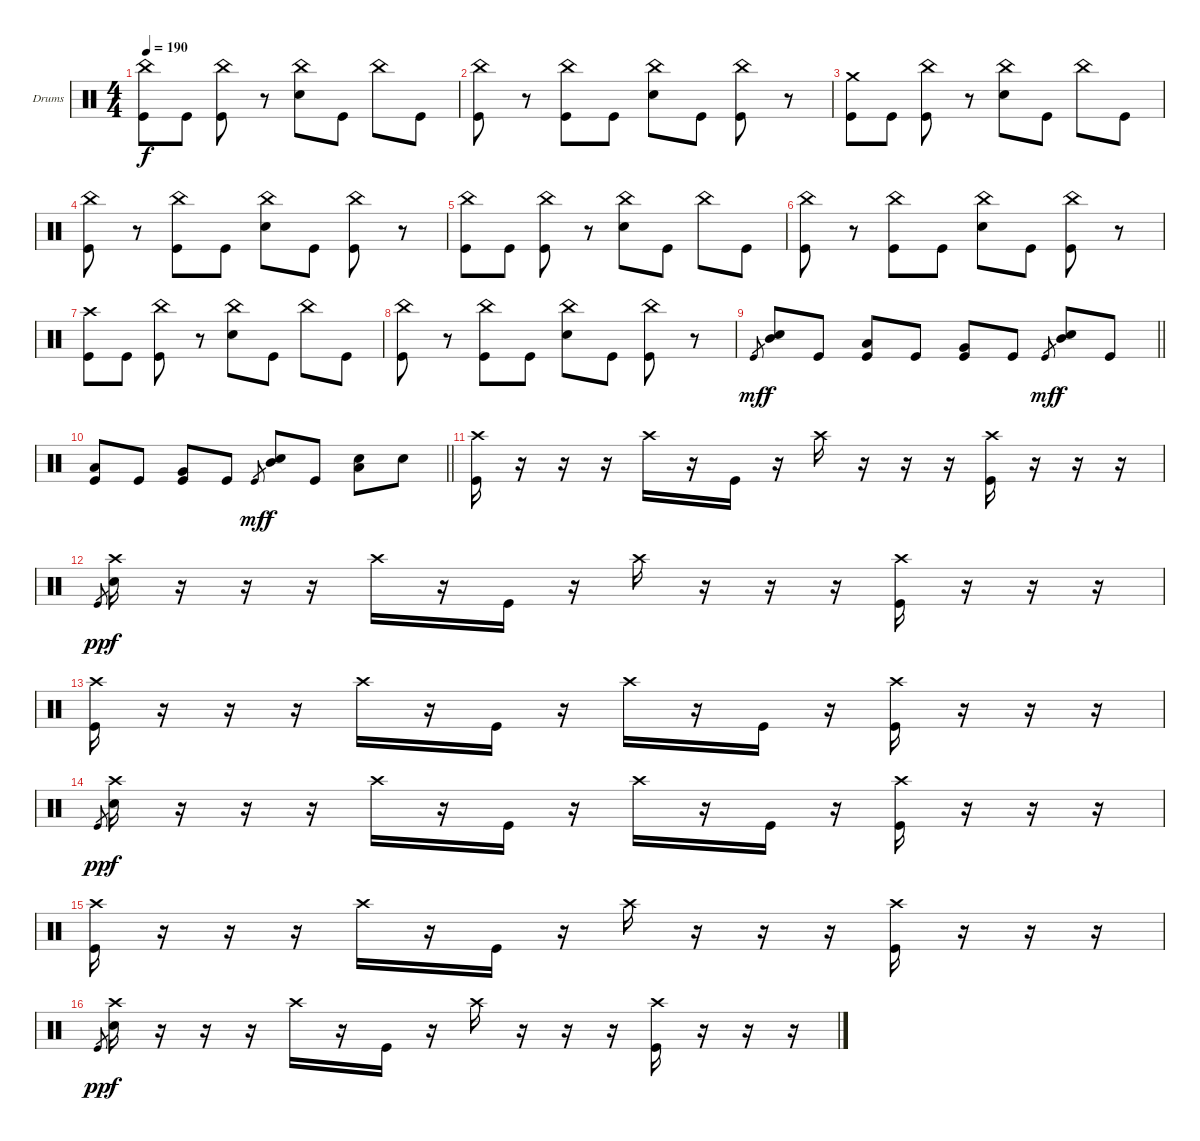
\bracketExtendMode groupsimilarinstruments
\firstSystemTrackNameOrientation horizontal
\otherSystemsTrackNameOrientation horizontal
\track ("Drumkit" "Drums") {instrument percussion}
\staff {score}
\articulation defaults
\ts (4 4)
\tempo 190
\clef neutral
\ks c
("China (hit)" "Kick (hit)").8{dy f} "Kick (hit)".8 ("China (hit)" "Kick (hit)").8 r.8 ("China (hit)" "Snare (hit) 2").8 "Kick (hit)".8 "China (hit)".8 "Kick (hit)".8 |
("China (hit)" "Kick (hit)").8 r.8 ("China (hit)" "Kick (hit)").8 "Kick (hit)".8 ("China (hit)" "Snare (hit) 2").8 "Kick (hit)".8 ("China (hit)" "Kick (hit)").8 r.8 |
("Crash medium (hit)" "Kick (hit)").8 "Kick (hit)".8 ("China (hit)" "Kick (hit)").8 r.8 ("China (hit)" "Snare (hit) 2").8 "Kick (hit)".8 "China (hit)".8 "Kick (hit)".8 |
("China (hit)" "Kick (hit)").8 r.8 ("China (hit)" "Kick (hit)").8 "Kick (hit)".8 ("China (hit)" "Snare (hit) 2").8 "Kick (hit)".8 ("China (hit)" "Kick (hit)").8 r.8 |
("China (hit)" "Kick (hit)").8 "Kick (hit)".8 ("China (hit)" "Kick (hit)").8 r.8 ("China (hit)" "Snare (hit) 2").8 "Kick (hit)".8 "China (hit)".8 "Kick (hit)".8 |
("China (hit)" "Kick (hit)").8 r.8 ("China (hit)" "Kick (hit)").8 "Kick (hit)".8 ("China (hit)" "Snare (hit) 2").8 "Kick (hit)".8 ("China (hit)" "Kick (hit)").8 r.8 |
("Crash high (hit)" "Kick (hit)").8 "Kick (hit)".8 ("China (hit)" "Kick (hit)").8 r.8 ("China (hit)" "Snare (hit) 2").8 "Kick (hit)".8 "China (hit)".8 "Kick (hit)".8 |
("China (hit)" "Kick (hit)").8 r.8 ("China (hit)" "Kick (hit)").8 "Kick (hit)".8 ("China (hit)" "Snare (hit) 2").8 "Kick (hit)".8 ("China (hit)" "Kick (hit)").8 r.8 |
\barLineRight lightlight "Kick (hit)".8{gr dy mf}
("Snare (hit) 2" "Mid Tom (hit)").8{dy f} "Kick (hit)".8 ("Kick (hit)" "Low Tom (hit)").8 "Kick (hit)".8 ("Kick (hit)" "Very Low Tom (hit)").8 "Kick (hit)".8 "Kick (hit)".8{gr dy mf} ("Snare (hit) 2" "Mid Tom (hit)").8{dy f} "Kick (hit)".8 |
\barLineRight lightlight
("Kick (hit)" "Low Tom (hit)").8 "Kick (hit)".8 ("Kick (hit)" "Very Low Tom (hit)").8 "Kick (hit)".8 "Kick (hit)".8{gr dy mf} ("Snare (hit) 2" "Mid Tom (hit)").8{dy f} "Kick (hit)".8 ("Snare (hit) 2" "Low Tom (hit)").8 "Snare (hit) 2".8 |
("Crash high (hit)" "Kick (hit)").16 r.16 r.16 r.16 "Crash high (hit)".16 r.16 "Kick (hit)".16 r.16 "Crash high (hit)".16 r.16 r.16 r.16 ("Crash high (hit)" "Kick (hit)").16 r.16 r.16 r.16 |
"Kick (hit)".8{gr dy pp} ("Crash high (hit)" "Snare (hit) 2").16{dy f} r.16 r.16 r.16 "Crash high (hit)".16 r.16 "Kick (hit)".16 r.16 "Crash high (hit)".16 r.16 r.16 r.16 ("Crash high (hit)" "Kick (hit)").16 r.16 r.16 r.16 |
("Crash high (hit)" "Kick (hit)").16 r.16 r.16 r.16 "Crash high (hit)".16 r.16 "Kick (hit)".16 r.16 "Crash high (hit)".16 r.16 "Kick (hit)".16 r.16 ("Crash high (hit)" "Kick (hit)").16 r.16 r.16 r.16 |
"Kick (hit)".8{gr dy pp} ("Crash high (hit)" "Snare (hit) 2").16{dy f} r.16 r.16 r.16 "Crash high (hit)".16 r.16 "Kick (hit)".16 r.16 "Crash high (hit)".16 r.16 "Kick (hit)".16 r.16 ("Crash high (hit)" "Kick (hit)").16 r.16 r.16 r.16 |
("Crash high (hit)" "Kick (hit)").16 r.16 r.16 r.16 "Crash high (hit)".16 r.16 "Kick (hit)".16 r.16 "Crash high (hit)".16 r.16 r.16 r.16 ("Crash high (hit)" "Kick (hit)").16 r.16 r.16 r.16 |
"Kick (hit)".8{gr dy pp} ("Crash high (hit)" "Snare (hit) 2").16{dy f} r.16 r.16 r.16 "Crash high (hit)".16 r.16 "Kick (hit)".16 r.16 "Crash high (hit)".16 r.16 r.16 r.16 ("Crash high (hit)" "Kick (hit)").16 r.16 r.16 r.16
